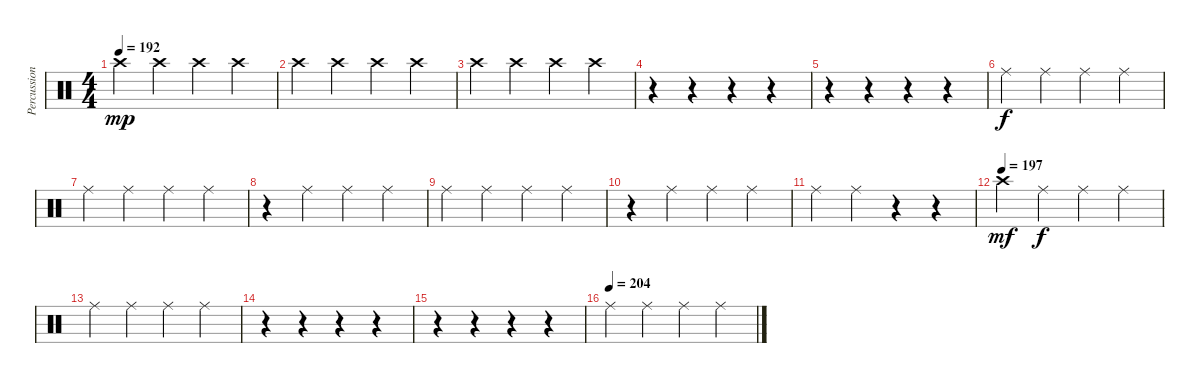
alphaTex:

\track ("Percussion2" "Percussion") {instrument percussion}
\staff {score}
\articulation defaults
\ts (4 4)
\tempo 192
\clef neutral
\ks c "Crash high (hit)".4{dy mp} "Crash high (hit)".4 "Crash high (hit)".4 "Crash high (hit)".4
|
"Crash high (hit)".4 "Crash high (hit)".4 "Crash high (hit)".4 "Crash high (hit)".4 |
"Crash high (hit)".4 "Crash high (hit)".4 "Crash high (hit)".4 "Crash high (hit)".4 |
r.4 r.4 r.4 r.4 |
r.4 r.4 r.4 r.4 |
"Ride (middle)".4{dy f} "Ride (middle)".4 "Ride (middle)".4 "Ride (middle)".4 |
"Ride (middle)".4 "Ride (middle)".4 "Ride (middle)".4 "Ride (middle)".4 |
r.4 "Ride (middle)".4 "Ride (middle)".4 "Ride (middle)".4 |
"Ride (middle)".4 "Ride (middle)".4 "Ride (middle)".4 "Ride (middle)".4 |
r.4 "Ride (middle)".4 "Ride (middle)".4 "Ride (middle)".4 |
"Ride (middle)".4 "Ride (middle)".4 r.4 r.4 |
\tempo (197)
"Crash high (hit)".4{dy mf} "Ride (middle)".4{dy f} "Ride (middle)".4 "Ride (middle)".4 |
"Ride (middle)".4 "Ride (middle)".4 "Ride (middle)".4 "Ride (middle)".4 |
r.4 r.4 r.4 r.4 |
r.4 r.4 r.4 r.4 |
\tempo (204)
"Ride (middle)".4 "Ride (middle)".4 "Ride (middle)".4 "Ride (middle)".4
